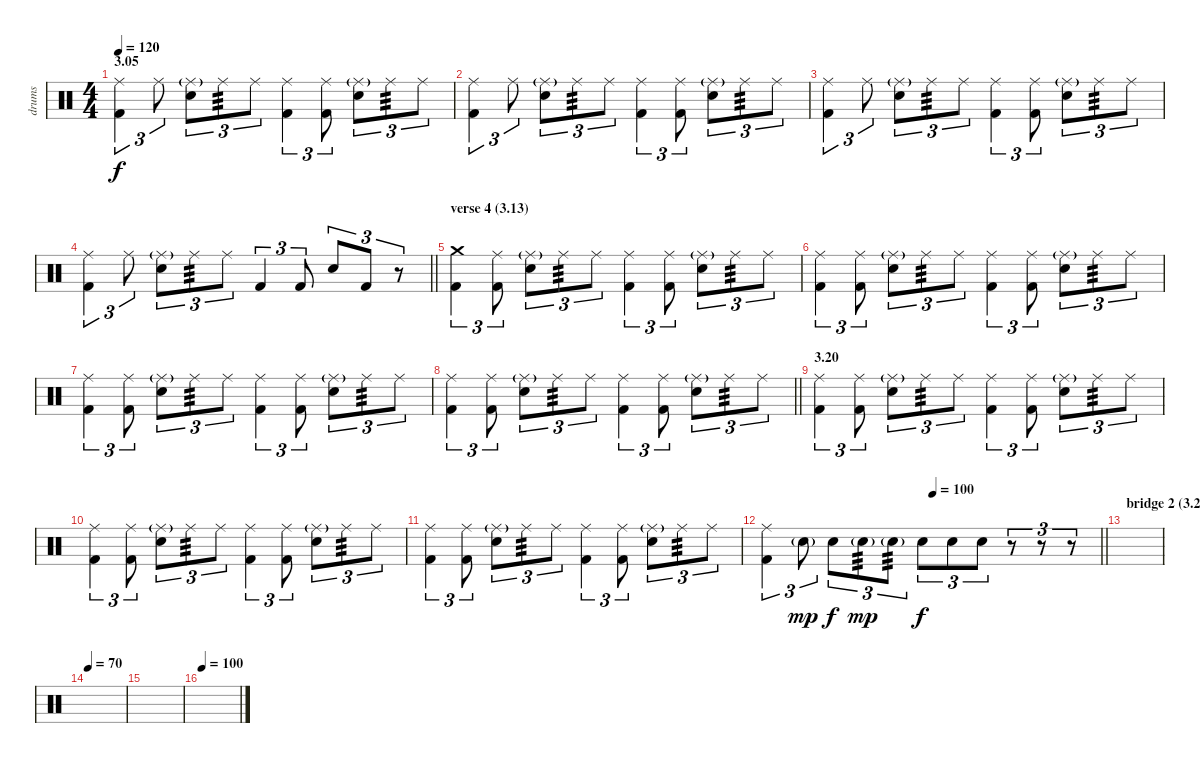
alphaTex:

\track ("drums" "drums") {instrument percussion}
\staff {score}
\articulation defaults
\ts (4 4)
\section ("" "3.05")
\tempo 120
\clef neutral
\ks c
("Ride (middle)" "Kick (hit) 2").4{tu (3 2) dy f} "Ride (middle)".8{tu (3 2)} ("Ride (middle)"{g} "Electric Snare (hit)").8{tu (3 2)} "Ride (middle)".8{tu (3 2) tp 3} "Ride (middle)".8{tu (3 2)} ("Ride (middle)" "Kick (hit) 2").4{tu (3 2)} ("Ride (middle)" "Kick (hit) 2").8{tu (3 2)} ("Ride (middle)"{g} "Electric Snare (hit)").8{tu (3 2)} "Ride (middle)".8{tu (3 2) tp 3} "Ride (middle)".8{tu (3 2)} |
("Ride (middle)" "Kick (hit) 2").4{tu (3 2)} "Ride (middle)".8{tu (3 2)} ("Ride (middle)"{g} "Electric Snare (hit)").8{tu (3 2)} "Ride (middle)".8{tu (3 2) tp 3} "Ride (middle)".8{tu (3 2)} ("Ride (middle)" "Kick (hit) 2").4{tu (3 2)} ("Ride (middle)" "Kick (hit) 2").8{tu (3 2)} ("Ride (middle)"{g} "Electric Snare (hit)").8{tu (3 2)} "Ride (middle)".8{tu (3 2) tp 3} "Ride (middle)".8{tu (3 2)} |
("Ride (middle)" "Kick (hit) 2").4{tu (3 2)} "Ride (middle)".8{tu (3 2)} ("Ride (middle)"{g} "Electric Snare (hit)").8{tu (3 2)} "Ride (middle)".8{tu (3 2) tp 3} "Ride (middle)".8{tu (3 2)} ("Ride (middle)" "Kick (hit) 2").4{tu (3 2)} ("Ride (middle)" "Kick (hit) 2").8{tu (3 2)} ("Ride (middle)"{g} "Electric Snare (hit)").8{tu (3 2)} "Ride (middle)".8{tu (3 2) tp 3} "Ride (middle)".8{tu (3 2)} |
\barLineRight lightlight
("Ride (middle)" "Kick (hit) 2").4{tu (3 2)} "Ride (middle)".8{tu (3 2)} ("Ride (middle)"{g} "Electric Snare (hit)").8{tu (3 2)} "Ride (middle)".8{tu (3 2) tp 3} "Ride (middle)".8{tu (3 2)} "Kick (hit) 2".4{tu (3 2)} "Kick (hit) 2".8{tu (3 2)} "Electric Snare (hit)".8{tu (3 2)} "Kick (hit) 2".8{tu (3 2)} r.8{tu (3 2)} |
\section ("" "verse 4 (3.13)")
("Crash medium (hit)" "Kick (hit) 2").4{tu (3 2)} ("Ride (middle)" "Kick (hit) 2").8{tu (3 2)} ("Ride (middle)"{g} "Electric Snare (hit)").8{tu (3 2)} "Ride (middle)".8{tu (3 2) tp 3} "Ride (middle)".8{tu (3 2)} ("Ride (middle)" "Kick (hit) 2").4{tu (3 2)} ("Ride (middle)" "Kick (hit) 2").8{tu (3 2)} ("Ride (middle)"{g} "Electric Snare (hit)").8{tu (3 2)} "Ride (middle)".8{tu (3 2) tp 3} "Ride (middle)".8{tu (3 2)} |
("Ride (middle)" "Kick (hit) 2").4{tu (3 2)} ("Ride (middle)" "Kick (hit) 2").8{tu (3 2)} ("Ride (middle)"{g} "Electric Snare (hit)").8{tu (3 2)} "Ride (middle)".8{tu (3 2) tp 3} "Ride (middle)".8{tu (3 2)} ("Ride (middle)" "Kick (hit) 2").4{tu (3 2)} ("Ride (middle)" "Kick (hit) 2").8{tu (3 2)} ("Ride (middle)"{g} "Electric Snare (hit)").8{tu (3 2)} "Ride (middle)".8{tu (3 2) tp 3} "Ride (middle)".8{tu (3 2)} |
("Ride (middle)" "Kick (hit) 2").4{tu (3 2)} ("Ride (middle)" "Kick (hit) 2").8{tu (3 2)} ("Ride (middle)"{g} "Electric Snare (hit)").8{tu (3 2)} "Ride (middle)".8{tu (3 2) tp 3} "Ride (middle)".8{tu (3 2)} ("Ride (middle)" "Kick (hit) 2").4{tu (3 2)} ("Ride (middle)" "Kick (hit) 2").8{tu (3 2)} ("Ride (middle)"{g} "Electric Snare (hit)").8{tu (3 2)} "Ride (middle)".8{tu (3 2) tp 3} "Ride (middle)".8{tu (3 2)} |
\barLineRight lightlight
("Ride (middle)" "Kick (hit) 2").4{tu (3 2)} ("Ride (middle)" "Kick (hit) 2").8{tu (3 2)} ("Ride (middle)"{g} "Electric Snare (hit)").8{tu (3 2)} "Ride (middle)".8{tu (3 2) tp 3} "Ride (middle)".8{tu (3 2)} ("Ride (middle)" "Kick (hit) 2").4{tu (3 2)} ("Ride (middle)" "Kick (hit) 2").8{tu (3 2)} ("Ride (middle)"{g} "Electric Snare (hit)").8{tu (3 2)} "Ride (middle)".8{tu (3 2) tp 3} "Ride (middle)".8{tu (3 2)} |
\section ("" "3.20")
("Ride (middle)" "Kick (hit) 2").4{tu (3 2)} ("Ride (middle)" "Kick (hit) 2").8{tu (3 2)} ("Ride (middle)"{g} "Electric Snare (hit)").8{tu (3 2)} "Ride (middle)".8{tu (3 2) tp 3} "Ride (middle)".8{tu (3 2)} ("Ride (middle)" "Kick (hit) 2").4{tu (3 2)} ("Ride (middle)" "Kick (hit) 2").8{tu (3 2)} ("Ride (middle)"{g} "Electric Snare (hit)").8{tu (3 2)} "Ride (middle)".8{tu (3 2) tp 3} "Ride (middle)".8{tu (3 2)} |
("Ride (middle)" "Kick (hit) 2").4{tu (3 2)} ("Ride (middle)" "Kick (hit) 2").8{tu (3 2)} ("Ride (middle)"{g} "Electric Snare (hit)").8{tu (3 2)} "Ride (middle)".8{tu (3 2) tp 3} "Ride (middle)".8{tu (3 2)} ("Ride (middle)" "Kick (hit) 2").4{tu (3 2)} ("Ride (middle)" "Kick (hit) 2").8{tu (3 2)} ("Ride (middle)"{g} "Electric Snare (hit)").8{tu (3 2)} "Ride (middle)".8{tu (3 2) tp 3} "Ride (middle)".8{tu (3 2)} |
("Ride (middle)" "Kick (hit) 2").4{tu (3 2)} ("Ride (middle)" "Kick (hit) 2").8{tu (3 2)} ("Ride (middle)"{g} "Electric Snare (hit)").8{tu (3 2)} "Ride (middle)".8{tu (3 2) tp 3} "Ride (middle)".8{tu (3 2)} ("Ride (middle)" "Kick (hit) 2").4{tu (3 2)} ("Ride (middle)" "Kick (hit) 2").8{tu (3 2)} ("Ride (middle)"{g} "Electric Snare (hit)").8{tu (3 2)} "Ride (middle)".8{tu (3 2) tp 3} "Ride (middle)".8{tu (3 2)} |
\tempo (100 0.5)
\barLineRight lightlight
("Ride (middle)" "Kick (hit) 2").4{tu (3 2)} "Electric Snare (hit)"{g}.8{tu (3 2) dy mp} "Electric Snare (hit)".8{tu (3 2) dy f} "Electric Snare (hit)"{g}.8{tu (3 2) tp 3 dy mp} "Electric Snare (hit)"{g}.8{tu (3 2) tp 3} "Electric Snare (hit)".8{tu (3 2) dy f} "Electric Snare (hit)".8{tu (3 2)} "Electric Snare (hit)".8{tu (3 2)} r.8{tu (3 2)} r.8{tu (3 2)} r.8{tu (3 2)} |
\section ("" "bridge 2 (3.28) t=100/70/100")
|
\tempo 70
|
|
\tempo 100
